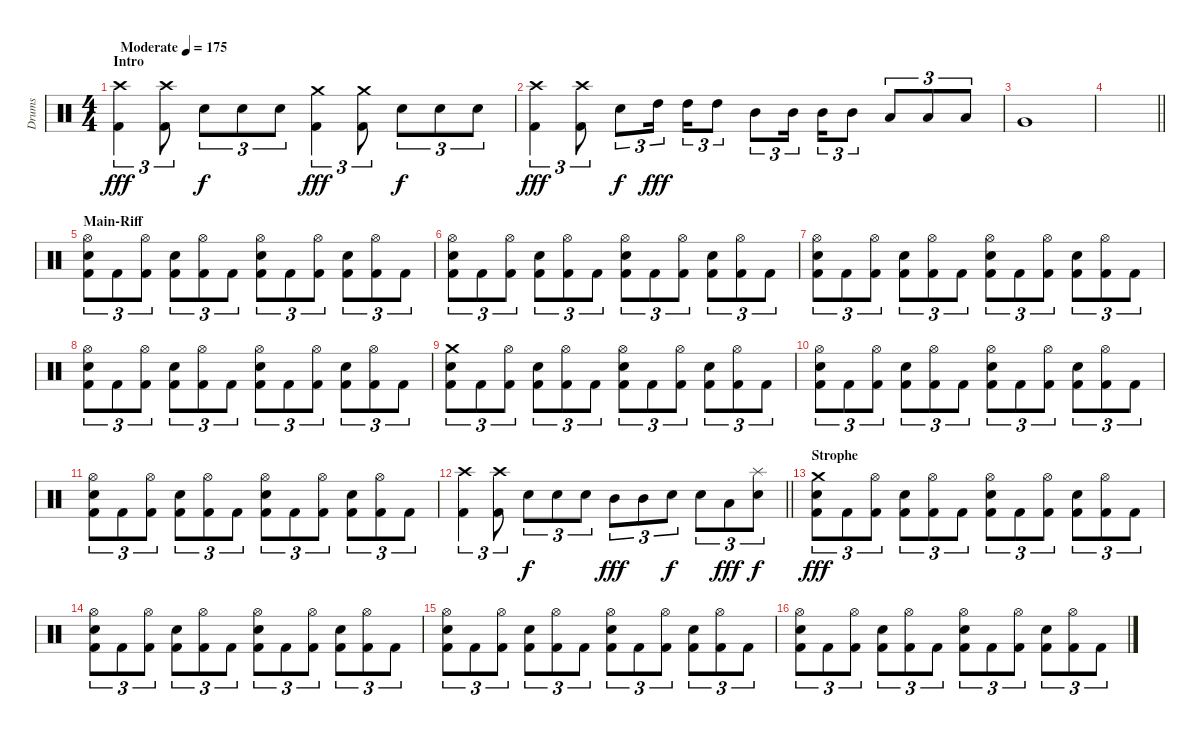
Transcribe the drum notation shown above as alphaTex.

\track ("Drums" "Drums") {instrument percussion}
\staff {score}
\articulation defaults
\ts (4 4)
\section ("" "Intro")
\tempo (175 "Moderate")
\clef neutral
\ks c
("Crash high (hit)" "Kick (hit) 2").4{tu (3 2) dy fff} ("Crash high (hit)" "Kick (hit) 2").8{tu (3 2)} "Electric Snare (hit)".8{tu (3 2) dy f} "Electric Snare (hit)".8{tu (3 2)} "Electric Snare (hit)".8{tu (3 2)} ("Crash medium (hit)" "Kick (hit) 2").4{tu (3 2) dy fff} ("Crash medium (hit)" "Kick (hit) 2").8{tu (3 2)} "Electric Snare (hit)".8{tu (3 2) dy f} "Electric Snare (hit)".8{tu (3 2)} "Electric Snare (hit)".8{tu (3 2)} |
("Crash high (hit)" "Kick (hit) 2").4{tu (3 2) dy fff} ("Crash high (hit)" "Kick (hit) 2").8{tu (3 2)} "Electric Snare (hit)".8{tu (3 2) dy f} "High Tom (hit)".16{tu (3 2) dy fff beam splitsecondary} "High Tom (hit)".16{tu (3 2)} "High Tom (hit)".8{tu (3 2)} "Mid Tom (hit)".8{tu (3 2)} "Mid Tom (hit)".16{tu (3 2) beam splitsecondary} "Mid Tom (hit)".16{tu (3 2)} "Mid Tom (hit)".8{tu (3 2)} "Low Tom (hit)".8{tu (3 2)} "Low Tom (hit)".8{tu (3 2)} "Low Tom (hit)".8{tu (3 2)} |
"Very Low Tom (hit)".1 |
\barLineRight lightlight
|
\section ("" "Main-Riff")
("Hi-Hat (open)" "Electric Snare (hit)" "Kick (hit) 2").8{tu (3 2)} "Kick (hit) 2".8{tu (3 2)} ("Hi-Hat (open)" "Kick (hit) 2").8{tu (3 2)} ("Electric Snare (hit)" "Kick (hit) 2").8{tu (3 2)} ("Hi-Hat (open)" "Kick (hit) 2").8{tu (3 2)} "Kick (hit) 2".8{tu (3 2)} ("Hi-Hat (open)" "Electric Snare (hit)" "Kick (hit) 2").8{tu (3 2)} "Kick (hit) 2".8{tu (3 2)} ("Hi-Hat (open)" "Kick (hit) 2").8{tu (3 2)} ("Electric Snare (hit)" "Kick (hit) 2").8{tu (3 2)} ("Hi-Hat (open)" "Kick (hit) 2").8{tu (3 2)} "Kick (hit) 2".8{tu (3 2)} |
("Hi-Hat (open)" "Electric Snare (hit)" "Kick (hit) 2").8{tu (3 2)} "Kick (hit) 2".8{tu (3 2)} ("Hi-Hat (open)" "Kick (hit) 2").8{tu (3 2)} ("Electric Snare (hit)" "Kick (hit) 2").8{tu (3 2)} ("Hi-Hat (open)" "Kick (hit) 2").8{tu (3 2)} "Kick (hit) 2".8{tu (3 2)} ("Hi-Hat (open)" "Electric Snare (hit)" "Kick (hit) 2").8{tu (3 2)} "Kick (hit) 2".8{tu (3 2)} ("Hi-Hat (open)" "Kick (hit) 2").8{tu (3 2)} ("Electric Snare (hit)" "Kick (hit) 2").8{tu (3 2)} ("Hi-Hat (open)" "Kick (hit) 2").8{tu (3 2)} "Kick (hit) 2".8{tu (3 2)} |
("Hi-Hat (open)" "Electric Snare (hit)" "Kick (hit) 2").8{tu (3 2)} "Kick (hit) 2".8{tu (3 2)} ("Hi-Hat (open)" "Kick (hit) 2").8{tu (3 2)} ("Electric Snare (hit)" "Kick (hit) 2").8{tu (3 2)} ("Hi-Hat (open)" "Kick (hit) 2").8{tu (3 2)} "Kick (hit) 2".8{tu (3 2)} ("Hi-Hat (open)" "Electric Snare (hit)" "Kick (hit) 2").8{tu (3 2)} "Kick (hit) 2".8{tu (3 2)} ("Hi-Hat (open)" "Kick (hit) 2").8{tu (3 2)} ("Electric Snare (hit)" "Kick (hit) 2").8{tu (3 2)} ("Hi-Hat (open)" "Kick (hit) 2").8{tu (3 2)} "Kick (hit) 2".8{tu (3 2)} |
("Hi-Hat (open)" "Electric Snare (hit)" "Kick (hit) 2").8{tu (3 2)} "Kick (hit) 2".8{tu (3 2)} ("Hi-Hat (open)" "Kick (hit) 2").8{tu (3 2)} ("Electric Snare (hit)" "Kick (hit) 2").8{tu (3 2)} ("Hi-Hat (open)" "Kick (hit) 2").8{tu (3 2)} "Kick (hit) 2".8{tu (3 2)} ("Hi-Hat (open)" "Electric Snare (hit)" "Kick (hit) 2").8{tu (3 2)} "Kick (hit) 2".8{tu (3 2)} ("Hi-Hat (open)" "Kick (hit) 2").8{tu (3 2)} ("Electric Snare (hit)" "Kick (hit) 2").8{tu (3 2)} ("Hi-Hat (open)" "Kick (hit) 2").8{tu (3 2)} "Kick (hit) 2".8{tu (3 2)} |
("Crash medium (hit)" "Electric Snare (hit)" "Kick (hit) 2").8{tu (3 2)} "Kick (hit) 2".8{tu (3 2)} ("Hi-Hat (open)" "Kick (hit) 2").8{tu (3 2)} ("Electric Snare (hit)" "Kick (hit) 2").8{tu (3 2)} ("Hi-Hat (open)" "Kick (hit) 2").8{tu (3 2)} "Kick (hit) 2".8{tu (3 2)} ("Hi-Hat (open)" "Electric Snare (hit)" "Kick (hit) 2").8{tu (3 2)} "Kick (hit) 2".8{tu (3 2)} ("Hi-Hat (open)" "Kick (hit) 2").8{tu (3 2)} ("Electric Snare (hit)" "Kick (hit) 2").8{tu (3 2)} ("Hi-Hat (open)" "Kick (hit) 2").8{tu (3 2)} "Kick (hit) 2".8{tu (3 2)} |
("Hi-Hat (open)" "Electric Snare (hit)" "Kick (hit) 2").8{tu (3 2)} "Kick (hit) 2".8{tu (3 2)} ("Hi-Hat (open)" "Kick (hit) 2").8{tu (3 2)} ("Electric Snare (hit)" "Kick (hit) 2").8{tu (3 2)} ("Hi-Hat (open)" "Kick (hit) 2").8{tu (3 2)} "Kick (hit) 2".8{tu (3 2)} ("Hi-Hat (open)" "Electric Snare (hit)" "Kick (hit) 2").8{tu (3 2)} "Kick (hit) 2".8{tu (3 2)} ("Hi-Hat (open)" "Kick (hit) 2").8{tu (3 2)} ("Electric Snare (hit)" "Kick (hit) 2").8{tu (3 2)} ("Hi-Hat (open)" "Kick (hit) 2").8{tu (3 2)} "Kick (hit) 2".8{tu (3 2)} |
("Hi-Hat (open)" "Electric Snare (hit)" "Kick (hit) 2").8{tu (3 2)} "Kick (hit) 2".8{tu (3 2)} ("Hi-Hat (open)" "Kick (hit) 2").8{tu (3 2)} ("Electric Snare (hit)" "Kick (hit) 2").8{tu (3 2)} ("Hi-Hat (open)" "Kick (hit) 2").8{tu (3 2)} "Kick (hit) 2".8{tu (3 2)} ("Hi-Hat (open)" "Electric Snare (hit)" "Kick (hit) 2").8{tu (3 2)} "Kick (hit) 2".8{tu (3 2)} ("Hi-Hat (open)" "Kick (hit) 2").8{tu (3 2)} ("Electric Snare (hit)" "Kick (hit) 2").8{tu (3 2)} ("Hi-Hat (open)" "Kick (hit) 2").8{tu (3 2)} "Kick (hit) 2".8{tu (3 2)} |
\barLineRight lightlight
("Crash high (hit)" "Kick (hit) 2").4{tu (3 2)} ("Crash high (hit)" "Kick (hit) 2").8{tu (3 2)} "Electric Snare (hit)".8{tu (3 2) dy f} "Electric Snare (hit)".8{tu (3 2)} "Electric Snare (hit)".8{tu (3 2)} "Mid Tom (hit)".8{tu (3 2) dy fff} "Mid Tom (hit)".8{tu (3 2)} "Electric Snare (hit)".8{tu (3 2) dy f} "Electric Snare (hit)".8{tu (3 2)} "Low Tom (hit)".8{tu (3 2) dy fff} ("Splash (hit)" "Electric Snare (hit)").8{tu (3 2) dy f} |
\section ("" "Strophe")
("Crash medium (hit)" "Electric Snare (hit)" "Kick (hit) 2").8{tu (3 2) dy fff} "Kick (hit) 2".8{tu (3 2)} ("Hi-Hat (open)" "Kick (hit) 2").8{tu (3 2)} ("Electric Snare (hit)" "Kick (hit) 2").8{tu (3 2)} ("Hi-Hat (open)" "Kick (hit) 2").8{tu (3 2)} "Kick (hit) 2".8{tu (3 2)} ("Hi-Hat (open)" "Electric Snare (hit)" "Kick (hit) 2").8{tu (3 2)} "Kick (hit) 2".8{tu (3 2)} ("Hi-Hat (open)" "Kick (hit) 2").8{tu (3 2)} ("Electric Snare (hit)" "Kick (hit) 2").8{tu (3 2)} ("Hi-Hat (open)" "Kick (hit) 2").8{tu (3 2)} "Kick (hit) 2".8{tu (3 2)} |
("Hi-Hat (open)" "Electric Snare (hit)" "Kick (hit) 2").8{tu (3 2)} "Kick (hit) 2".8{tu (3 2)} ("Hi-Hat (open)" "Kick (hit) 2").8{tu (3 2)} ("Electric Snare (hit)" "Kick (hit) 2").8{tu (3 2)} ("Hi-Hat (open)" "Kick (hit) 2").8{tu (3 2)} "Kick (hit) 2".8{tu (3 2)} ("Hi-Hat (open)" "Electric Snare (hit)" "Kick (hit) 2").8{tu (3 2)} "Kick (hit) 2".8{tu (3 2)} ("Hi-Hat (open)" "Kick (hit) 2").8{tu (3 2)} ("Electric Snare (hit)" "Kick (hit) 2").8{tu (3 2)} ("Hi-Hat (open)" "Kick (hit) 2").8{tu (3 2)} "Kick (hit) 2".8{tu (3 2)} |
("Hi-Hat (open)" "Electric Snare (hit)" "Kick (hit) 2").8{tu (3 2)} "Kick (hit) 2".8{tu (3 2)} ("Hi-Hat (open)" "Kick (hit) 2").8{tu (3 2)} ("Electric Snare (hit)" "Kick (hit) 2").8{tu (3 2)} ("Hi-Hat (open)" "Kick (hit) 2").8{tu (3 2)} "Kick (hit) 2".8{tu (3 2)} ("Hi-Hat (open)" "Electric Snare (hit)" "Kick (hit) 2").8{tu (3 2)} "Kick (hit) 2".8{tu (3 2)} ("Hi-Hat (open)" "Kick (hit) 2").8{tu (3 2)} ("Electric Snare (hit)" "Kick (hit) 2").8{tu (3 2)} ("Hi-Hat (open)" "Kick (hit) 2").8{tu (3 2)} "Kick (hit) 2".8{tu (3 2)} |
("Hi-Hat (open)" "Electric Snare (hit)" "Kick (hit) 2").8{tu (3 2)} "Kick (hit) 2".8{tu (3 2)} ("Hi-Hat (open)" "Kick (hit) 2").8{tu (3 2)} ("Electric Snare (hit)" "Kick (hit) 2").8{tu (3 2)} ("Hi-Hat (open)" "Kick (hit) 2").8{tu (3 2)} "Kick (hit) 2".8{tu (3 2)} ("Hi-Hat (open)" "Electric Snare (hit)" "Kick (hit) 2").8{tu (3 2)} "Kick (hit) 2".8{tu (3 2)} ("Hi-Hat (open)" "Kick (hit) 2").8{tu (3 2)} ("Electric Snare (hit)" "Kick (hit) 2").8{tu (3 2)} ("Hi-Hat (open)" "Kick (hit) 2").8{tu (3 2)} "Kick (hit) 2".8{tu (3 2)}
